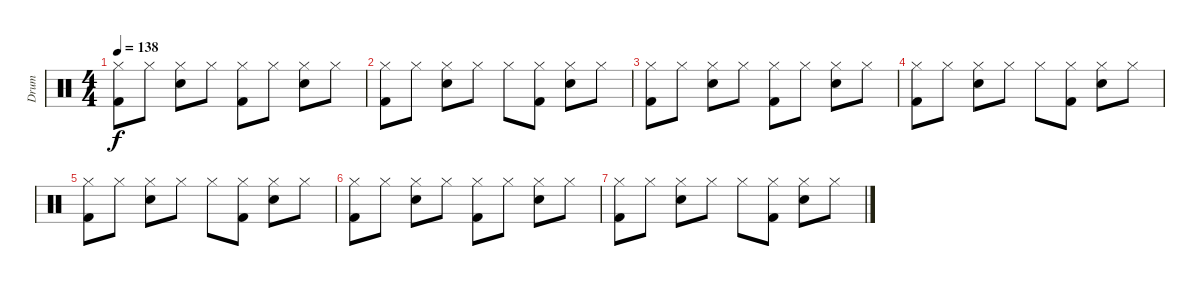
\track ("Drum" "Drum") {instrument percussion}
\staff {score}
\articulation defaults
\ts (4 4)
\tempo 138
\clef neutral
\ks c
("Hi-Hat (closed)" "Kick (hit) 2").8{dy f} "Hi-Hat (closed)".8 ("Hi-Hat (closed)" "Snare (hit) 2").8 "Hi-Hat (closed)".8 ("Hi-Hat (closed)" "Kick (hit) 2").8 "Hi-Hat (closed)".8 ("Hi-Hat (closed)" "Snare (hit) 2").8 "Hi-Hat (closed)".8 |
("Hi-Hat (closed)" "Kick (hit) 2").8 "Hi-Hat (closed)".8 ("Hi-Hat (closed)" "Snare (hit) 2").8 "Hi-Hat (closed)".8 "Hi-Hat (closed)".8 ("Hi-Hat (closed)" "Kick (hit) 2").8 ("Hi-Hat (closed)" "Snare (hit) 2").8 "Hi-Hat (closed)".8 |
("Hi-Hat (closed)" "Kick (hit) 2").8 "Hi-Hat (closed)".8 ("Hi-Hat (closed)" "Snare (hit) 2").8 "Hi-Hat (closed)".8 ("Hi-Hat (closed)" "Kick (hit) 2").8 "Hi-Hat (closed)".8 ("Hi-Hat (closed)" "Snare (hit) 2").8 "Hi-Hat (closed)".8 |
("Hi-Hat (closed)" "Kick (hit) 2").8 "Hi-Hat (closed)".8 ("Hi-Hat (closed)" "Snare (hit) 2").8 "Hi-Hat (closed)".8 "Hi-Hat (closed)".8 ("Hi-Hat (closed)" "Kick (hit) 2").8 ("Hi-Hat (closed)" "Snare (hit) 2").8 "Hi-Hat (closed)".8 |
("Hi-Hat (closed)" "Kick (hit) 2").8 "Hi-Hat (closed)".8 ("Hi-Hat (closed)" "Snare (hit) 2").8 "Hi-Hat (closed)".8 "Hi-Hat (closed)".8 ("Hi-Hat (closed)" "Kick (hit) 2").8 ("Hi-Hat (closed)" "Snare (hit) 2").8 "Hi-Hat (closed)".8 |
("Hi-Hat (closed)" "Kick (hit) 2").8 "Hi-Hat (closed)".8 ("Hi-Hat (closed)" "Snare (hit) 2").8 "Hi-Hat (closed)".8 ("Hi-Hat (closed)" "Kick (hit) 2").8 "Hi-Hat (closed)".8 ("Hi-Hat (closed)" "Snare (hit) 2").8 "Hi-Hat (closed)".8 |
("Hi-Hat (closed)" "Kick (hit) 2").8 "Hi-Hat (closed)".8 ("Hi-Hat (closed)" "Snare (hit) 2").8 "Hi-Hat (closed)".8 "Hi-Hat (closed)".8 ("Hi-Hat (closed)" "Kick (hit) 2").8 ("Hi-Hat (closed)" "Snare (hit) 2").8 "Hi-Hat (closed)".8
